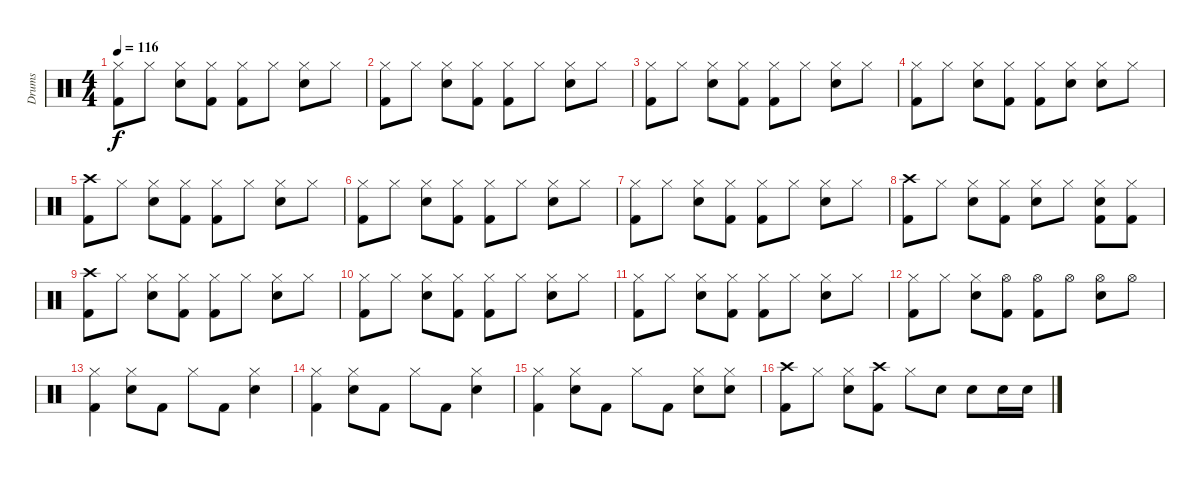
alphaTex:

\track ("Drums" "Drums") {instrument percussion}
\staff {score}
\articulation defaults
\ts (4 4)
\tempo 116
\clef neutral
\ks c
("Hi-Hat (closed)" "Kick (hit) 2").8{dy f} "Hi-Hat (closed)".8 ("Hi-Hat (closed)" "Electric Snare (hit)").8 ("Hi-Hat (closed)" "Kick (hit) 2").8 ("Hi-Hat (closed)" "Kick (hit) 2").8 "Hi-Hat (closed)".8 ("Hi-Hat (closed)" "Electric Snare (hit)").8 "Hi-Hat (closed)".8 |
("Hi-Hat (closed)" "Kick (hit) 2").8 "Hi-Hat (closed)".8 ("Hi-Hat (closed)" "Electric Snare (hit)").8 ("Hi-Hat (closed)" "Kick (hit) 2").8 ("Hi-Hat (closed)" "Kick (hit) 2").8 "Hi-Hat (closed)".8 ("Hi-Hat (closed)" "Electric Snare (hit)").8 "Hi-Hat (closed)".8 |
("Hi-Hat (closed)" "Kick (hit) 2").8 "Hi-Hat (closed)".8 ("Hi-Hat (closed)" "Electric Snare (hit)").8 ("Hi-Hat (closed)" "Kick (hit) 2").8 ("Hi-Hat (closed)" "Kick (hit) 2").8 "Hi-Hat (closed)".8 ("Hi-Hat (closed)" "Electric Snare (hit)").8 "Hi-Hat (closed)".8 |
("Hi-Hat (closed)" "Kick (hit) 2").8 "Hi-Hat (closed)".8 ("Hi-Hat (closed)" "Electric Snare (hit)").8 ("Hi-Hat (closed)" "Kick (hit) 2").8 ("Hi-Hat (closed)" "Kick (hit) 2").8 ("Hi-Hat (closed)" "Electric Snare (hit)").8 ("Hi-Hat (closed)" "Electric Snare (hit)").8 "Hi-Hat (closed)".8 |
("Crash high (hit)" "Kick (hit) 2").8 "Hi-Hat (closed)".8 ("Hi-Hat (closed)" "Electric Snare (hit)").8 ("Hi-Hat (closed)" "Kick (hit) 2").8 ("Hi-Hat (closed)" "Kick (hit) 2").8 "Hi-Hat (closed)".8 ("Hi-Hat (closed)" "Electric Snare (hit)").8 "Hi-Hat (closed)".8 |
("Hi-Hat (closed)" "Kick (hit) 2").8 "Hi-Hat (closed)".8 ("Hi-Hat (closed)" "Electric Snare (hit)").8 ("Hi-Hat (closed)" "Kick (hit) 2").8 ("Hi-Hat (closed)" "Kick (hit) 2").8 "Hi-Hat (closed)".8 ("Hi-Hat (closed)" "Electric Snare (hit)").8 "Hi-Hat (closed)".8 |
("Hi-Hat (closed)" "Kick (hit) 2").8 "Hi-Hat (closed)".8 ("Hi-Hat (closed)" "Electric Snare (hit)").8 ("Hi-Hat (closed)" "Kick (hit) 2").8 ("Hi-Hat (closed)" "Kick (hit) 2").8 "Hi-Hat (closed)".8 ("Hi-Hat (closed)" "Electric Snare (hit)").8 "Hi-Hat (closed)".8 |
("Crash high (hit)" "Kick (hit) 2").8 "Hi-Hat (closed)".8 ("Hi-Hat (closed)" "Electric Snare (hit)").8 ("Hi-Hat (closed)" "Kick (hit) 2").8 ("Hi-Hat (closed)" "Electric Snare (hit)").8 "Hi-Hat (closed)".8 ("Hi-Hat (closed)" "Electric Snare (hit)" "Kick (hit) 2").8 ("Hi-Hat (closed)" "Kick (hit) 2").8 |
("Crash high (hit)" "Kick (hit) 2").8 "Hi-Hat (closed)".8 ("Hi-Hat (closed)" "Electric Snare (hit)").8 ("Hi-Hat (closed)" "Kick (hit) 2").8 ("Hi-Hat (closed)" "Kick (hit) 2").8 "Hi-Hat (closed)".8 ("Hi-Hat (closed)" "Electric Snare (hit)").8 "Hi-Hat (closed)".8 |
("Hi-Hat (closed)" "Kick (hit) 2").8 "Hi-Hat (closed)".8 ("Hi-Hat (closed)" "Electric Snare (hit)").8 ("Hi-Hat (closed)" "Kick (hit) 2").8 ("Hi-Hat (closed)" "Kick (hit) 2").8 "Hi-Hat (closed)".8 ("Hi-Hat (closed)" "Electric Snare (hit)").8 "Hi-Hat (closed)".8 |
("Hi-Hat (closed)" "Kick (hit) 2").8 "Hi-Hat (closed)".8 ("Hi-Hat (closed)" "Electric Snare (hit)").8 ("Hi-Hat (closed)" "Kick (hit) 2").8 ("Hi-Hat (closed)" "Kick (hit) 2").8 "Hi-Hat (closed)".8 ("Hi-Hat (closed)" "Electric Snare (hit)").8 "Hi-Hat (closed)".8 |
("Hi-Hat (closed)" "Kick (hit) 2").8 "Hi-Hat (closed)".8 ("Hi-Hat (closed)" "Electric Snare (hit)").8 ("Hi-Hat (open)" "Kick (hit) 2").8 ("Hi-Hat (open)" "Kick (hit) 2").8 "Hi-Hat (open)".8 ("Hi-Hat (open)" "Electric Snare (hit)").8 "Hi-Hat (open)".8 |
("Hi-Hat (closed)" "Kick (hit) 2").4 ("Hi-Hat (closed)" "Electric Snare (hit)").8 "Kick (hit) 2".8 "Hi-Hat (closed)".8 "Kick (hit) 2".8 ("Hi-Hat (closed)" "Electric Snare (hit)").4 |
("Hi-Hat (closed)" "Kick (hit) 2").4 ("Hi-Hat (closed)" "Electric Snare (hit)").8 "Kick (hit) 2".8 "Hi-Hat (closed)".8 "Kick (hit) 2".8 ("Hi-Hat (closed)" "Electric Snare (hit)").4 |
("Hi-Hat (closed)" "Kick (hit) 2").4 ("Hi-Hat (closed)" "Electric Snare (hit)").8 "Kick (hit) 2".8 "Hi-Hat (closed)".8 "Kick (hit) 2".8 ("Hi-Hat (closed)" "Electric Snare (hit)").8 ("Hi-Hat (closed)" "Electric Snare (hit)").8 |
("Crash high (hit)" "Kick (hit) 2").8 "Hi-Hat (closed)".8 ("Hi-Hat (closed)" "Electric Snare (hit)").8 ("Crash high (hit)" "Kick (hit) 2").8 "Hi-Hat (closed)".8 "Electric Snare (hit)".8 "Electric Snare (hit)".8 "Electric Snare (hit)".16 "Electric Snare (hit)".16
